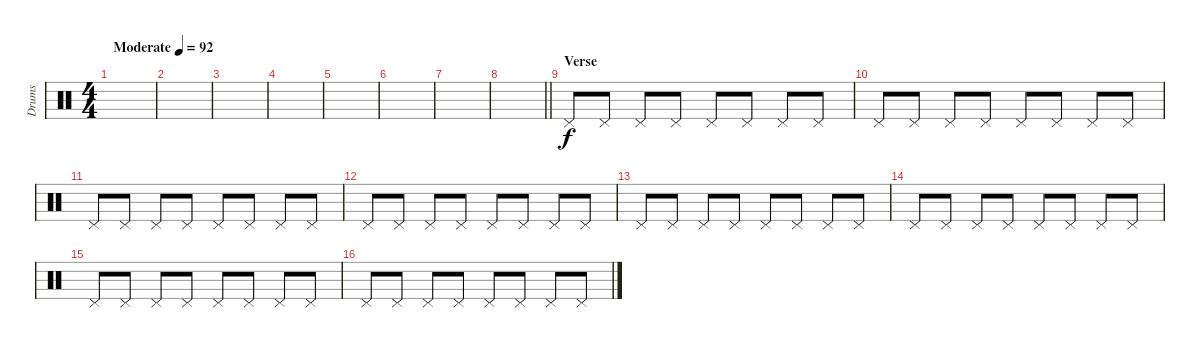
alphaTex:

\track ("Drums" "Drums") {instrument percussion}
\staff {score}
\articulation defaults
\ts (4 4)
\tempo (92 "Moderate")
\clef neutral
\ks c
|
|
|
|
|
|
|
\barLineRight lightlight
|
\section ("" "Verse")
"Pedal Hi-Hat (hit)".8 "Pedal Hi-Hat (hit)".8 "Pedal Hi-Hat (hit)".8 "Pedal Hi-Hat (hit)".8 "Pedal Hi-Hat (hit)".8 "Pedal Hi-Hat (hit)".8 "Pedal Hi-Hat (hit)".8 "Pedal Hi-Hat (hit)".8 |
"Pedal Hi-Hat (hit)".8 "Pedal Hi-Hat (hit)".8 "Pedal Hi-Hat (hit)".8 "Pedal Hi-Hat (hit)".8 "Pedal Hi-Hat (hit)".8 "Pedal Hi-Hat (hit)".8 "Pedal Hi-Hat (hit)".8 "Pedal Hi-Hat (hit)".8 |
"Pedal Hi-Hat (hit)".8 "Pedal Hi-Hat (hit)".8 "Pedal Hi-Hat (hit)".8 "Pedal Hi-Hat (hit)".8 "Pedal Hi-Hat (hit)".8 "Pedal Hi-Hat (hit)".8 "Pedal Hi-Hat (hit)".8 "Pedal Hi-Hat (hit)".8 |
"Pedal Hi-Hat (hit)".8 "Pedal Hi-Hat (hit)".8 "Pedal Hi-Hat (hit)".8 "Pedal Hi-Hat (hit)".8 "Pedal Hi-Hat (hit)".8 "Pedal Hi-Hat (hit)".8 "Pedal Hi-Hat (hit)".8 "Pedal Hi-Hat (hit)".8 |
"Pedal Hi-Hat (hit)".8 "Pedal Hi-Hat (hit)".8 "Pedal Hi-Hat (hit)".8 "Pedal Hi-Hat (hit)".8 "Pedal Hi-Hat (hit)".8 "Pedal Hi-Hat (hit)".8 "Pedal Hi-Hat (hit)".8 "Pedal Hi-Hat (hit)".8 |
"Pedal Hi-Hat (hit)".8 "Pedal Hi-Hat (hit)".8 "Pedal Hi-Hat (hit)".8 "Pedal Hi-Hat (hit)".8 "Pedal Hi-Hat (hit)".8 "Pedal Hi-Hat (hit)".8 "Pedal Hi-Hat (hit)".8 "Pedal Hi-Hat (hit)".8 |
"Pedal Hi-Hat (hit)".8 "Pedal Hi-Hat (hit)".8 "Pedal Hi-Hat (hit)".8 "Pedal Hi-Hat (hit)".8 "Pedal Hi-Hat (hit)".8 "Pedal Hi-Hat (hit)".8 "Pedal Hi-Hat (hit)".8 "Pedal Hi-Hat (hit)".8 |
"Pedal Hi-Hat (hit)".8 "Pedal Hi-Hat (hit)".8 "Pedal Hi-Hat (hit)".8 "Pedal Hi-Hat (hit)".8 "Pedal Hi-Hat (hit)".8 "Pedal Hi-Hat (hit)".8 "Pedal Hi-Hat (hit)".8 "Pedal Hi-Hat (hit)".8
